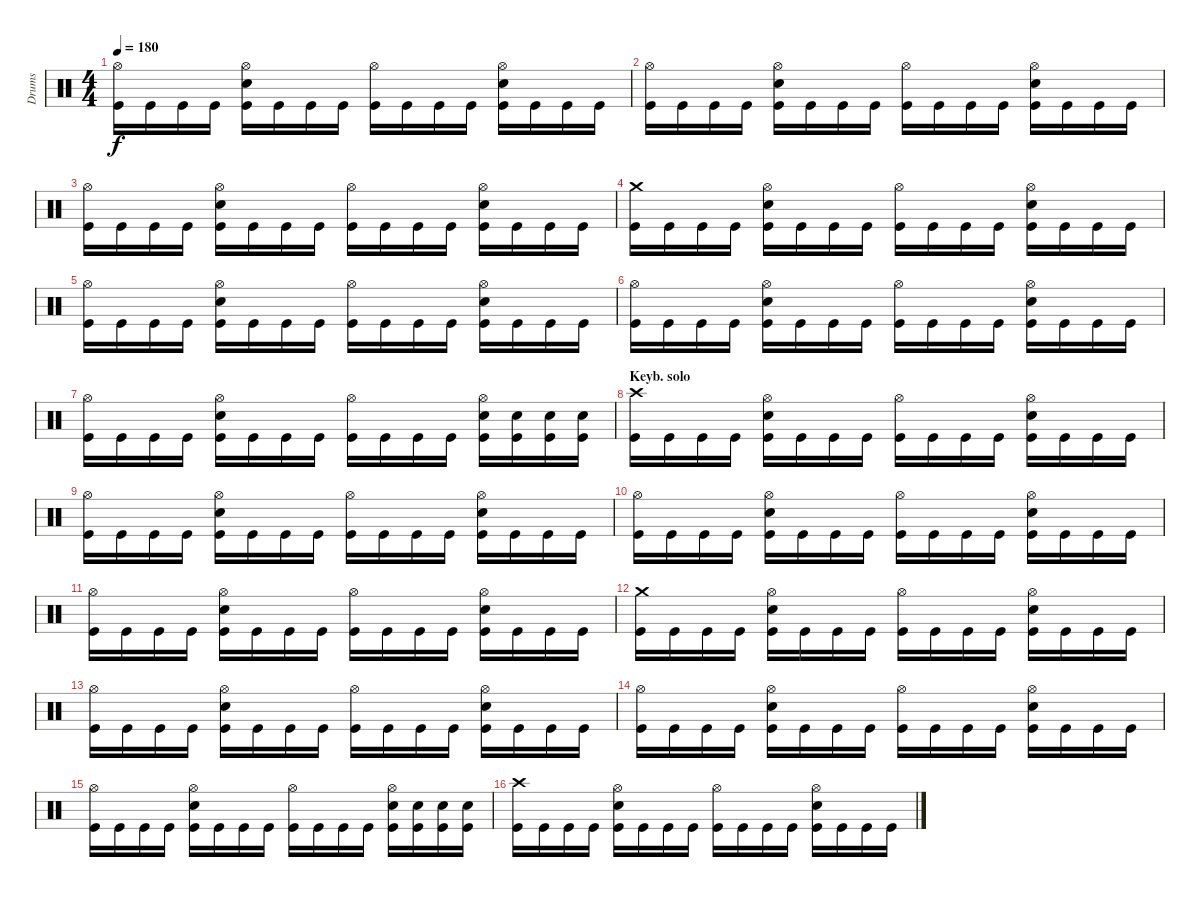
\track ("Drums" "Drums") {instrument percussion}
\staff {score}
\articulation defaults
\ts (4 4)
\tempo 180
\clef neutral
\ks c
("Hi-Hat (open)" "Kick (hit)").16{dy f} "Kick (hit)".16 "Kick (hit)".16 "Kick (hit)".16 ("Hi-Hat (open)" "Snare (hit) 2" "Kick (hit)").16 "Kick (hit)".16 "Kick (hit)".16 "Kick (hit)".16 ("Hi-Hat (open)" "Kick (hit)").16 "Kick (hit)".16 "Kick (hit)".16 "Kick (hit)".16 ("Hi-Hat (open)" "Snare (hit) 2" "Kick (hit)").16 "Kick (hit)".16 "Kick (hit)".16 "Kick (hit)".16 |
("Hi-Hat (open)" "Kick (hit)").16 "Kick (hit)".16 "Kick (hit)".16 "Kick (hit)".16 ("Hi-Hat (open)" "Snare (hit) 2" "Kick (hit)").16 "Kick (hit)".16 "Kick (hit)".16 "Kick (hit)".16 ("Hi-Hat (open)" "Kick (hit)").16 "Kick (hit)".16 "Kick (hit)".16 "Kick (hit)".16 ("Hi-Hat (open)" "Snare (hit) 2" "Kick (hit)").16 "Kick (hit)".16 "Kick (hit)".16 "Kick (hit)".16 |
("Hi-Hat (open)" "Kick (hit)").16 "Kick (hit)".16 "Kick (hit)".16 "Kick (hit)".16 ("Hi-Hat (open)" "Snare (hit) 2" "Kick (hit)").16 "Kick (hit)".16 "Kick (hit)".16 "Kick (hit)".16 ("Hi-Hat (open)" "Kick (hit)").16 "Kick (hit)".16 "Kick (hit)".16 "Kick (hit)".16 ("Hi-Hat (open)" "Snare (hit) 2" "Kick (hit)").16 "Kick (hit)".16 "Kick (hit)".16 "Kick (hit)".16 |
("Crash medium (hit)" "Kick (hit)").16 "Kick (hit)".16 "Kick (hit)".16 "Kick (hit)".16 ("Hi-Hat (open)" "Snare (hit) 2" "Kick (hit)").16 "Kick (hit)".16 "Kick (hit)".16 "Kick (hit)".16 ("Hi-Hat (open)" "Kick (hit)").16 "Kick (hit)".16 "Kick (hit)".16 "Kick (hit)".16 ("Hi-Hat (open)" "Snare (hit) 2" "Kick (hit)").16 "Kick (hit)".16 "Kick (hit)".16 "Kick (hit)".16 |
("Hi-Hat (open)" "Kick (hit)").16 "Kick (hit)".16 "Kick (hit)".16 "Kick (hit)".16 ("Hi-Hat (open)" "Snare (hit) 2" "Kick (hit)").16 "Kick (hit)".16 "Kick (hit)".16 "Kick (hit)".16 ("Hi-Hat (open)" "Kick (hit)").16 "Kick (hit)".16 "Kick (hit)".16 "Kick (hit)".16 ("Hi-Hat (open)" "Snare (hit) 2" "Kick (hit)").16 "Kick (hit)".16 "Kick (hit)".16 "Kick (hit)".16 |
("Hi-Hat (open)" "Kick (hit)").16 "Kick (hit)".16 "Kick (hit)".16 "Kick (hit)".16 ("Hi-Hat (open)" "Snare (hit) 2" "Kick (hit)").16 "Kick (hit)".16 "Kick (hit)".16 "Kick (hit)".16 ("Hi-Hat (open)" "Kick (hit)").16 "Kick (hit)".16 "Kick (hit)".16 "Kick (hit)".16 ("Hi-Hat (open)" "Snare (hit) 2" "Kick (hit)").16 "Kick (hit)".16 "Kick (hit)".16 "Kick (hit)".16 |
("Hi-Hat (open)" "Kick (hit)").16 "Kick (hit)".16 "Kick (hit)".16 "Kick (hit)".16 ("Hi-Hat (open)" "Snare (hit) 2" "Kick (hit)").16 "Kick (hit)".16 "Kick (hit)".16 "Kick (hit)".16 ("Hi-Hat (open)" "Kick (hit)").16 "Kick (hit)".16 "Kick (hit)".16 "Kick (hit)".16 ("Hi-Hat (open)" "Snare (hit) 2" "Kick (hit)").16 ("Snare (hit) 2" "Kick (hit)").16 ("Snare (hit) 2" "Kick (hit)").16 ("Snare (hit) 2" "Kick (hit)").16 |
\section ("" "Keyb. solo")
("Crash high (hit)" "Kick (hit)").16 "Kick (hit)".16 "Kick (hit)".16 "Kick (hit)".16 ("Hi-Hat (open)" "Snare (hit) 2" "Kick (hit)").16 "Kick (hit)".16 "Kick (hit)".16 "Kick (hit)".16 ("Hi-Hat (open)" "Kick (hit)").16 "Kick (hit)".16 "Kick (hit)".16 "Kick (hit)".16 ("Hi-Hat (open)" "Snare (hit) 2" "Kick (hit)").16 "Kick (hit)".16 "Kick (hit)".16 "Kick (hit)".16 |
("Hi-Hat (open)" "Kick (hit)").16 "Kick (hit)".16 "Kick (hit)".16 "Kick (hit)".16 ("Hi-Hat (open)" "Snare (hit) 2" "Kick (hit)").16 "Kick (hit)".16 "Kick (hit)".16 "Kick (hit)".16 ("Hi-Hat (open)" "Kick (hit)").16 "Kick (hit)".16 "Kick (hit)".16 "Kick (hit)".16 ("Hi-Hat (open)" "Snare (hit) 2" "Kick (hit)").16 "Kick (hit)".16 "Kick (hit)".16 "Kick (hit)".16 |
("Hi-Hat (open)" "Kick (hit)").16 "Kick (hit)".16 "Kick (hit)".16 "Kick (hit)".16 ("Hi-Hat (open)" "Snare (hit) 2" "Kick (hit)").16 "Kick (hit)".16 "Kick (hit)".16 "Kick (hit)".16 ("Hi-Hat (open)" "Kick (hit)").16 "Kick (hit)".16 "Kick (hit)".16 "Kick (hit)".16 ("Hi-Hat (open)" "Snare (hit) 2" "Kick (hit)").16 "Kick (hit)".16 "Kick (hit)".16 "Kick (hit)".16 |
("Hi-Hat (open)" "Kick (hit)").16 "Kick (hit)".16 "Kick (hit)".16 "Kick (hit)".16 ("Hi-Hat (open)" "Snare (hit) 2" "Kick (hit)").16 "Kick (hit)".16 "Kick (hit)".16 "Kick (hit)".16 ("Hi-Hat (open)" "Kick (hit)").16 "Kick (hit)".16 "Kick (hit)".16 "Kick (hit)".16 ("Hi-Hat (open)" "Snare (hit) 2" "Kick (hit)").16 "Kick (hit)".16 "Kick (hit)".16 "Kick (hit)".16 |
("Crash medium (hit)" "Kick (hit)").16 "Kick (hit)".16 "Kick (hit)".16 "Kick (hit)".16 ("Hi-Hat (open)" "Snare (hit) 2" "Kick (hit)").16 "Kick (hit)".16 "Kick (hit)".16 "Kick (hit)".16 ("Hi-Hat (open)" "Kick (hit)").16 "Kick (hit)".16 "Kick (hit)".16 "Kick (hit)".16 ("Hi-Hat (open)" "Snare (hit) 2" "Kick (hit)").16 "Kick (hit)".16 "Kick (hit)".16 "Kick (hit)".16 |
("Hi-Hat (open)" "Kick (hit)").16 "Kick (hit)".16 "Kick (hit)".16 "Kick (hit)".16 ("Hi-Hat (open)" "Snare (hit) 2" "Kick (hit)").16 "Kick (hit)".16 "Kick (hit)".16 "Kick (hit)".16 ("Hi-Hat (open)" "Kick (hit)").16 "Kick (hit)".16 "Kick (hit)".16 "Kick (hit)".16 ("Hi-Hat (open)" "Snare (hit) 2" "Kick (hit)").16 "Kick (hit)".16 "Kick (hit)".16 "Kick (hit)".16 |
("Hi-Hat (open)" "Kick (hit)").16 "Kick (hit)".16 "Kick (hit)".16 "Kick (hit)".16 ("Hi-Hat (open)" "Snare (hit) 2" "Kick (hit)").16 "Kick (hit)".16 "Kick (hit)".16 "Kick (hit)".16 ("Hi-Hat (open)" "Kick (hit)").16 "Kick (hit)".16 "Kick (hit)".16 "Kick (hit)".16 ("Hi-Hat (open)" "Snare (hit) 2" "Kick (hit)").16 "Kick (hit)".16 "Kick (hit)".16 "Kick (hit)".16 |
("Hi-Hat (open)" "Kick (hit)").16 "Kick (hit)".16 "Kick (hit)".16 "Kick (hit)".16 ("Hi-Hat (open)" "Snare (hit) 2" "Kick (hit)").16 "Kick (hit)".16 "Kick (hit)".16 "Kick (hit)".16 ("Hi-Hat (open)" "Kick (hit)").16 "Kick (hit)".16 "Kick (hit)".16 "Kick (hit)".16 ("Hi-Hat (open)" "Snare (hit) 2" "Kick (hit)").16 ("Snare (hit) 2" "Kick (hit)").16 ("Snare (hit) 2" "Kick (hit)").16 ("Snare (hit) 2" "Kick (hit)").16 |
("Crash high (hit)" "Kick (hit)").16 "Kick (hit)".16 "Kick (hit)".16 "Kick (hit)".16 ("Hi-Hat (open)" "Snare (hit) 2" "Kick (hit)").16 "Kick (hit)".16 "Kick (hit)".16 "Kick (hit)".16 ("Hi-Hat (open)" "Kick (hit)").16 "Kick (hit)".16 "Kick (hit)".16 "Kick (hit)".16 ("Hi-Hat (open)" "Snare (hit) 2" "Kick (hit)").16 "Kick (hit)".16 "Kick (hit)".16 "Kick (hit)".16
